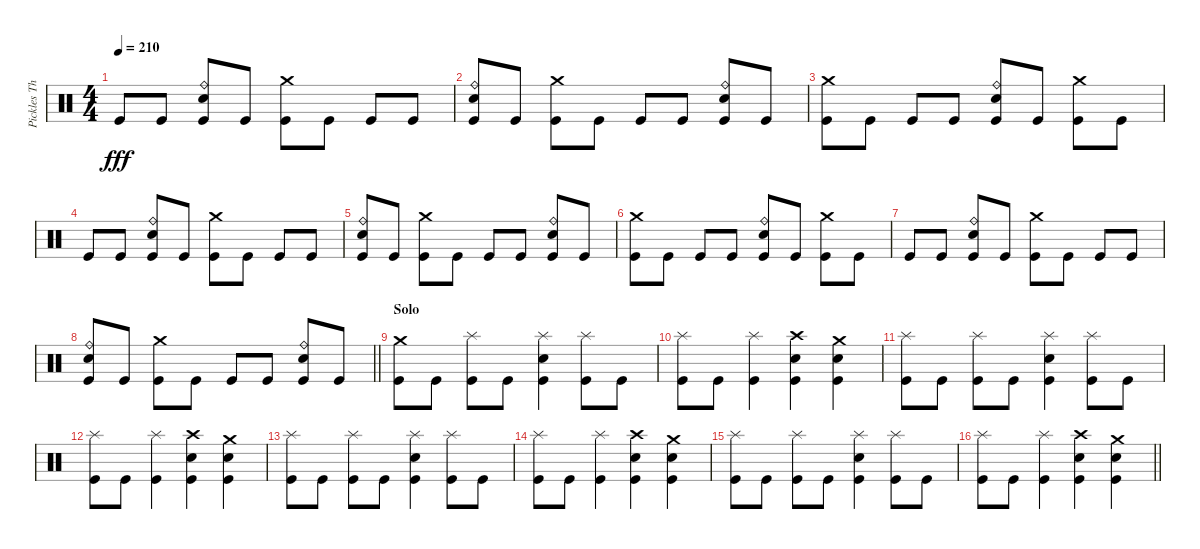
\track ("Pickles The Drummer (Drums)" "Pickles Th") {instrument percussion}
\staff {score}
\articulation defaults
\ts (4 4)
\tempo 210
\clef neutral
\ks c "Kick (hit)".8{dy fff} "Kick (hit)".8
("Ride (bell)" "Snare (hit) 2" "Kick (hit)").8 "Kick (hit)".8 ("Crash medium (hit)" "Kick (hit)").8 "Kick (hit)".8 "Kick (hit)".8 "Kick (hit)".8 |
("Ride (bell)" "Snare (hit) 2" "Kick (hit)").8 "Kick (hit)".8 ("Crash medium (hit)" "Kick (hit)").8 "Kick (hit)".8 "Kick (hit)".8 "Kick (hit)".8 ("Ride (bell)" "Snare (hit) 2" "Kick (hit)").8 "Kick (hit)".8 |
("Crash medium (hit)" "Kick (hit)").8 "Kick (hit)".8 "Kick (hit)".8 "Kick (hit)".8 ("Ride (bell)" "Snare (hit) 2" "Kick (hit)").8 "Kick (hit)".8 ("Crash medium (hit)" "Kick (hit)").8 "Kick (hit)".8 |
"Kick (hit)".8 "Kick (hit)".8 ("Ride (bell)" "Snare (hit) 2" "Kick (hit)").8 "Kick (hit)".8 ("Crash medium (hit)" "Kick (hit)").8 "Kick (hit)".8 "Kick (hit)".8 "Kick (hit)".8 |
("Ride (bell)" "Snare (hit) 2" "Kick (hit)").8 "Kick (hit)".8 ("Crash medium (hit)" "Kick (hit)").8 "Kick (hit)".8 "Kick (hit)".8 "Kick (hit)".8 ("Ride (bell)" "Snare (hit) 2" "Kick (hit)").8 "Kick (hit)".8 |
("Crash medium (hit)" "Kick (hit)").8 "Kick (hit)".8 "Kick (hit)".8 "Kick (hit)".8 ("Ride (bell)" "Snare (hit) 2" "Kick (hit)").8 "Kick (hit)".8 ("Crash medium (hit)" "Kick (hit)").8 "Kick (hit)".8 |
"Kick (hit)".8 "Kick (hit)".8 ("Ride (bell)" "Snare (hit) 2" "Kick (hit)").8 "Kick (hit)".8 ("Crash medium (hit)" "Kick (hit)").8 "Kick (hit)".8 "Kick (hit)".8 "Kick (hit)".8 |
\barLineRight lightlight
("Ride (bell)" "Snare (hit) 2" "Kick (hit)").8 "Kick (hit)".8 ("Crash medium (hit)" "Kick (hit)").8 "Kick (hit)".8 "Kick (hit)".8 "Kick (hit)".8 ("Ride (bell)" "Snare (hit) 2" "Kick (hit)").8 "Kick (hit)".8 |
\section ("" "Solo")
("Crash medium (hit)" "Kick (hit)").8 "Kick (hit)".8 ("Splash (hit)" "Kick (hit)").8 "Kick (hit)".8 ("Splash (hit)" "Snare (hit) 2" "Kick (hit)").4 ("Splash (hit)" "Kick (hit)").8 "Kick (hit)".8 |
("Splash (hit)" "Kick (hit)").8 "Kick (hit)".8 ("Splash (hit)" "Kick (hit)").4 ("Crash high (hit)" "Snare (hit) 2" "Kick (hit)").4 ("Crash medium (hit)" "Snare (hit) 2" "Kick (hit)").4 |
("Splash (hit)" "Kick (hit)").8 "Kick (hit)".8 ("Splash (hit)" "Kick (hit)").8 "Kick (hit)".8 ("Splash (hit)" "Snare (hit) 2" "Kick (hit)").4 ("Splash (hit)" "Kick (hit)").8 "Kick (hit)".8 |
("Splash (hit)" "Kick (hit)").8 "Kick (hit)".8 ("Splash (hit)" "Kick (hit)").4 ("Crash high (hit)" "Snare (hit) 2" "Kick (hit)").4 ("Crash medium (hit)" "Snare (hit) 2" "Kick (hit)").4 |
("Splash (hit)" "Kick (hit)").8 "Kick (hit)".8 ("Splash (hit)" "Kick (hit)").8 "Kick (hit)".8 ("Splash (hit)" "Snare (hit) 2" "Kick (hit)").4 ("Splash (hit)" "Kick (hit)").8 "Kick (hit)".8 |
("Splash (hit)" "Kick (hit)").8 "Kick (hit)".8 ("Splash (hit)" "Kick (hit)").4 ("Crash high (hit)" "Snare (hit) 2" "Kick (hit)").4 ("Crash medium (hit)" "Snare (hit) 2" "Kick (hit)").4 |
("Splash (hit)" "Kick (hit)").8 "Kick (hit)".8 ("Splash (hit)" "Kick (hit)").8 "Kick (hit)".8 ("Splash (hit)" "Snare (hit) 2" "Kick (hit)").4 ("Splash (hit)" "Kick (hit)").8 "Kick (hit)".8 |
\barLineRight lightlight
("Splash (hit)" "Kick (hit)").8 "Kick (hit)".8 ("Splash (hit)" "Kick (hit)").4 ("Crash high (hit)" "Snare (hit) 2" "Kick (hit)").4 ("Crash medium (hit)" "Snare (hit) 2" "Kick (hit)").4
